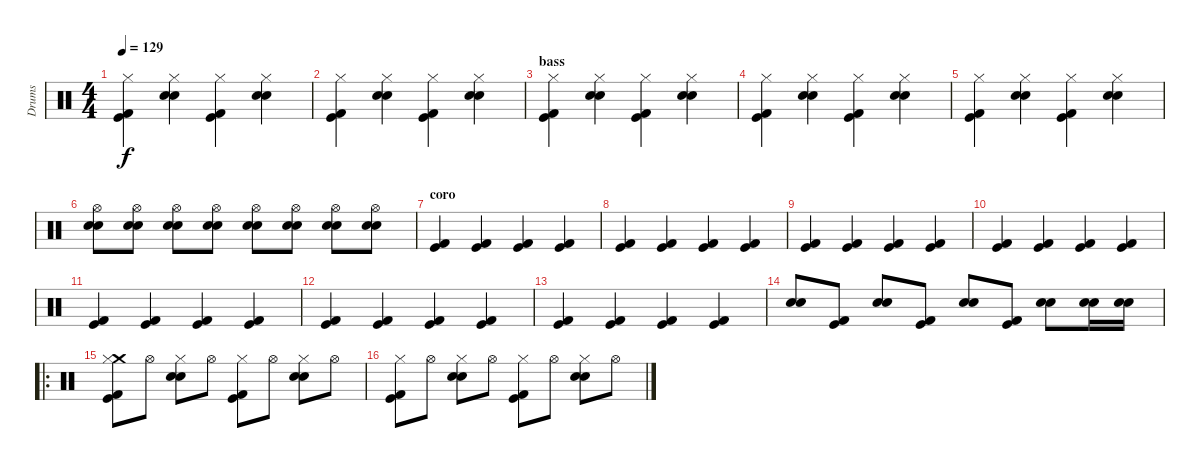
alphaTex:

\track ("Drums" "Drums") {instrument percussion}
\staff {score}
\articulation defaults
\ts (4 4)
\tempo 129
\clef neutral
\ks c
("Hi-Hat (closed)" "Kick (hit) 2" "Kick (hit)").4{dy f} ("Hi-Hat (closed)" "Snare (hit) 2" "Snare (hit) 2").4 ("Hi-Hat (closed)" "Kick (hit) 2" "Kick (hit)").4 ("Hi-Hat (closed)" "Snare (hit) 2" "Snare (hit) 2").4 |
("Hi-Hat (closed)" "Kick (hit) 2" "Kick (hit)").4 ("Hi-Hat (closed)" "Snare (hit) 2" "Snare (hit) 2").4 ("Hi-Hat (closed)" "Kick (hit) 2" "Kick (hit)").4 ("Hi-Hat (closed)" "Snare (hit) 2" "Snare (hit) 2").4 |
\section ("" "bass")
("Hi-Hat (closed)" "Kick (hit) 2" "Kick (hit)").4 ("Hi-Hat (closed)" "Snare (hit) 2" "Snare (hit) 2").4 ("Hi-Hat (closed)" "Kick (hit) 2" "Kick (hit)").4 ("Hi-Hat (closed)" "Snare (hit) 2" "Snare (hit) 2").4 |
("Hi-Hat (closed)" "Kick (hit) 2" "Kick (hit)").4 ("Hi-Hat (closed)" "Snare (hit) 2" "Snare (hit) 2").4 ("Hi-Hat (closed)" "Kick (hit) 2" "Kick (hit)").4 ("Hi-Hat (closed)" "Snare (hit) 2" "Snare (hit) 2").4 |
("Hi-Hat (closed)" "Kick (hit) 2" "Kick (hit)").4 ("Hi-Hat (closed)" "Snare (hit) 2" "Snare (hit) 2").4 ("Hi-Hat (closed)" "Kick (hit) 2" "Kick (hit)").4 ("Hi-Hat (closed)" "Snare (hit) 2" "Snare (hit) 2").4 |
("Hi-Hat (open)" "Snare (hit) 2" "Snare (hit) 2").8 ("Hi-Hat (open)" "Snare (hit) 2" "Snare (hit) 2").8 ("Hi-Hat (open)" "Snare (hit) 2" "Snare (hit) 2").8 ("Hi-Hat (open)" "Snare (hit) 2" "Snare (hit) 2").8 ("Hi-Hat (open)" "Snare (hit) 2" "Snare (hit) 2").8 ("Hi-Hat (open)" "Snare (hit) 2" "Snare (hit) 2").8 ("Hi-Hat (open)" "Snare (hit) 2" "Snare (hit) 2").8 ("Hi-Hat (open)" "Snare (hit) 2" "Snare (hit) 2").8 |
\section ("" "coro")
("Kick (hit) 2" "Kick (hit)").4 ("Kick (hit) 2" "Kick (hit)").4 ("Kick (hit) 2" "Kick (hit)").4 ("Kick (hit) 2" "Kick (hit)").4 |
("Kick (hit) 2" "Kick (hit)").4 ("Kick (hit) 2" "Kick (hit)").4 ("Kick (hit) 2" "Kick (hit)").4 ("Kick (hit) 2" "Kick (hit)").4 |
("Kick (hit) 2" "Kick (hit)").4 ("Kick (hit) 2" "Kick (hit)").4 ("Kick (hit) 2" "Kick (hit)").4 ("Kick (hit) 2" "Kick (hit)").4 |
("Kick (hit) 2" "Kick (hit)").4 ("Kick (hit) 2" "Kick (hit)").4 ("Kick (hit) 2" "Kick (hit)").4 ("Kick (hit) 2" "Kick (hit)").4 |
("Kick (hit) 2" "Kick (hit)").4 ("Kick (hit) 2" "Kick (hit)").4 ("Kick (hit) 2" "Kick (hit)").4 ("Kick (hit) 2" "Kick (hit)").4 |
("Kick (hit) 2" "Kick (hit)").4 ("Kick (hit) 2" "Kick (hit)").4 ("Kick (hit) 2" "Kick (hit)").4 ("Kick (hit) 2" "Kick (hit)").4 |
("Kick (hit) 2" "Kick (hit)").4 ("Kick (hit) 2" "Kick (hit)").4 ("Kick (hit) 2" "Kick (hit)").4 ("Kick (hit) 2" "Kick (hit)").4 |
("Snare (hit) 2" "Snare (hit) 2").8 ("Kick (hit) 2" "Kick (hit)").8 ("Snare (hit) 2" "Snare (hit) 2").8 ("Kick (hit) 2" "Kick (hit)").8 ("Snare (hit) 2" "Snare (hit) 2").8 ("Kick (hit) 2" "Kick (hit)").8 ("Snare (hit) 2" "Snare (hit) 2").8 ("Snare (hit) 2" "Snare (hit) 2").16 ("Snare (hit) 2" "Snare (hit) 2").16 |
\ro
("Crash medium (hit)" "Hi-Hat (closed)" "Kick (hit) 2" "Kick (hit)").8 "Hi-Hat (open)".8 ("Hi-Hat (closed)" "Snare (hit) 2" "Snare (hit) 2").8 "Hi-Hat (open)".8 ("Hi-Hat (closed)" "Kick (hit) 2" "Kick (hit)").8 "Hi-Hat (open)".8 ("Hi-Hat (closed)" "Snare (hit) 2" "Snare (hit) 2").8 "Hi-Hat (open)".8 |
("Hi-Hat (closed)" "Kick (hit) 2" "Kick (hit)").8 "Hi-Hat (open)".8 ("Hi-Hat (closed)" "Snare (hit) 2" "Snare (hit) 2").8 "Hi-Hat (open)".8 ("Hi-Hat (closed)" "Kick (hit) 2" "Kick (hit)").8 "Hi-Hat (open)".8 ("Hi-Hat (closed)" "Snare (hit) 2" "Snare (hit) 2").8 "Hi-Hat (open)".8
